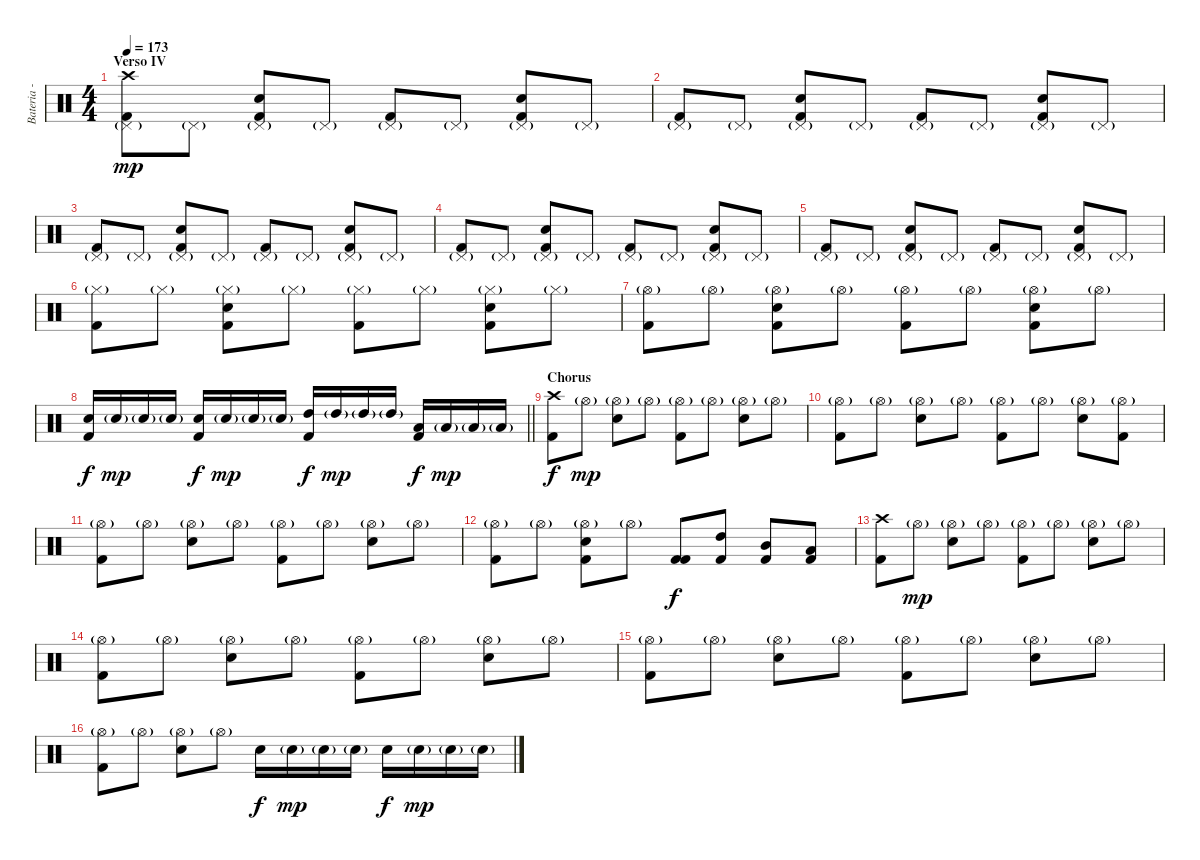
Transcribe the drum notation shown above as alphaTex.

\track ("Bateria - Larzon " "Bateria - ") {instrument percussion}
\staff {score}
\articulation defaults
\ts (4 4)
\section ("" "Verso IV")
\tempo 173
\clef neutral
\ks c
("Kick (hit) 2" "Pedal Hi-Hat (hit)"{g} "Crash high (hit)").8{dy mp} "Pedal Hi-Hat (hit)"{g}.8 ("Pedal Hi-Hat (hit)"{g} "Electric Snare (hit)" "Kick (hit) 2").8 "Pedal Hi-Hat (hit)"{g}.8 ("Kick (hit) 2" "Pedal Hi-Hat (hit)"{g}).8 "Pedal Hi-Hat (hit)"{g}.8 ("Pedal Hi-Hat (hit)"{g} "Electric Snare (hit)" "Kick (hit) 2").8 "Pedal Hi-Hat (hit)"{g}.8 |
("Kick (hit) 2" "Pedal Hi-Hat (hit)"{g}).8 "Pedal Hi-Hat (hit)"{g}.8 ("Pedal Hi-Hat (hit)"{g} "Electric Snare (hit)" "Kick (hit) 2").8 "Pedal Hi-Hat (hit)"{g}.8 ("Kick (hit) 2" "Pedal Hi-Hat (hit)"{g}).8 "Pedal Hi-Hat (hit)"{g}.8 ("Pedal Hi-Hat (hit)"{g} "Electric Snare (hit)" "Kick (hit) 2").8 "Pedal Hi-Hat (hit)"{g}.8 |
("Kick (hit) 2" "Pedal Hi-Hat (hit)"{g}).8 "Pedal Hi-Hat (hit)"{g}.8 ("Pedal Hi-Hat (hit)"{g} "Electric Snare (hit)" "Kick (hit) 2").8 "Pedal Hi-Hat (hit)"{g}.8 ("Kick (hit) 2" "Pedal Hi-Hat (hit)"{g}).8 "Pedal Hi-Hat (hit)"{g}.8 ("Pedal Hi-Hat (hit)"{g} "Electric Snare (hit)" "Kick (hit) 2").8 "Pedal Hi-Hat (hit)"{g}.8 |
("Kick (hit) 2" "Pedal Hi-Hat (hit)"{g}).8 "Pedal Hi-Hat (hit)"{g}.8 ("Pedal Hi-Hat (hit)"{g} "Electric Snare (hit)" "Kick (hit) 2").8 "Pedal Hi-Hat (hit)"{g}.8 ("Kick (hit) 2" "Pedal Hi-Hat (hit)"{g}).8 "Pedal Hi-Hat (hit)"{g}.8 ("Pedal Hi-Hat (hit)"{g} "Electric Snare (hit)" "Kick (hit) 2").8 "Pedal Hi-Hat (hit)"{g}.8 |
("Kick (hit) 2" "Pedal Hi-Hat (hit)"{g}).8 "Pedal Hi-Hat (hit)"{g}.8 ("Pedal Hi-Hat (hit)"{g} "Electric Snare (hit)" "Kick (hit) 2").8 "Pedal Hi-Hat (hit)"{g}.8 ("Kick (hit) 2" "Pedal Hi-Hat (hit)"{g}).8 "Pedal Hi-Hat (hit)"{g}.8 ("Pedal Hi-Hat (hit)"{g} "Electric Snare (hit)" "Kick (hit) 2").8 "Pedal Hi-Hat (hit)"{g}.8 |
("Kick (hit) 2" "Hi-Hat (closed)"{g}).8 "Hi-Hat (closed)"{g}.8 ("Hi-Hat (closed)"{g} "Electric Snare (hit)" "Kick (hit) 2").8 "Hi-Hat (closed)"{g}.8 ("Kick (hit) 2" "Hi-Hat (closed)"{g}).8 "Hi-Hat (closed)"{g}.8 ("Hi-Hat (closed)"{g} "Electric Snare (hit)" "Kick (hit) 2").8 "Hi-Hat (closed)"{g}.8 |
("Kick (hit) 2" "Hi-Hat (open)"{g}).8 "Hi-Hat (open)"{g}.8 ("Hi-Hat (open)"{g} "Electric Snare (hit)" "Kick (hit) 2").8 "Hi-Hat (open)"{g}.8 ("Kick (hit) 2" "Hi-Hat (open)"{g}).8 "Hi-Hat (open)"{g}.8 ("Hi-Hat (open)"{g} "Electric Snare (hit)" "Kick (hit) 2").8 "Hi-Hat (open)"{g}.8 |
\barLineRight lightlight
("Electric Snare (hit)" "Kick (hit) 2").16{dy f} "Electric Snare (hit)"{g}.16{dy mp} "Electric Snare (hit)"{g}.16 "Electric Snare (hit)"{g}.16 ("Electric Snare (hit)" "Kick (hit) 2").16{dy f} "Electric Snare (hit)"{g}.16{dy mp} "Electric Snare (hit)"{g}.16 "Electric Snare (hit)"{g}.16 ("High Tom (hit)" "Kick (hit) 2").16{dy f} "High Tom (hit)"{g}.16{dy mp} "High Tom (hit)"{g}.16 "High Tom (hit)"{g}.16 ("Low Tom (hit)" "Kick (hit) 2").16{dy f} "Low Tom (hit)"{g}.16{dy mp} "Low Tom (hit)"{g}.16 "Low Tom (hit)"{g}.16 |
\section ("" "Chorus")
("Kick (hit) 2" "Crash high (hit)").8{dy f} "Hi-Hat (open)"{g}.8{dy mp} ("Hi-Hat (open)"{g} "Electric Snare (hit)").8 "Hi-Hat (open)"{g}.8 ("Kick (hit) 2" "Hi-Hat (open)"{g}).8 "Hi-Hat (open)"{g}.8 ("Hi-Hat (open)"{g} "Electric Snare (hit)").8 "Hi-Hat (open)"{g}.8 |
("Kick (hit) 2" "Hi-Hat (open)"{g}).8 "Hi-Hat (open)"{g}.8 ("Hi-Hat (open)"{g} "Electric Snare (hit)").8 "Hi-Hat (open)"{g}.8 ("Kick (hit) 2" "Hi-Hat (open)"{g}).8 "Hi-Hat (open)"{g}.8 ("Hi-Hat (open)"{g} "Electric Snare (hit)").8 ("Kick (hit) 2" "Hi-Hat (open)"{g}).8 |
("Kick (hit) 2" "Hi-Hat (open)"{g}).8 "Hi-Hat (open)"{g}.8 ("Hi-Hat (open)"{g} "Electric Snare (hit)").8 "Hi-Hat (open)"{g}.8 ("Kick (hit) 2" "Hi-Hat (open)"{g}).8 "Hi-Hat (open)"{g}.8 ("Hi-Hat (open)"{g} "Electric Snare (hit)").8 "Hi-Hat (open)"{g}.8 |
("Kick (hit) 2" "Hi-Hat (open)"{g}).8 "Hi-Hat (open)"{g}.8 ("Hi-Hat (open)"{g} "Electric Snare (hit)" "Kick (hit) 2").8 "Hi-Hat (open)"{g}.8 ("Kick (hit) 2" "Kick (hit) 2").8{dy f} ("High Tom (hit)" "Kick (hit) 2").8 ("Mid Tom (hit)" "Kick (hit) 2").8 ("Low Tom (hit)" "Kick (hit) 2").8 |
("Kick (hit) 2" "Crash high (hit)").8 "Hi-Hat (open)"{g}.8{dy mp} ("Hi-Hat (open)"{g} "Electric Snare (hit)").8 "Hi-Hat (open)"{g}.8 ("Kick (hit) 2" "Hi-Hat (open)"{g}).8 "Hi-Hat (open)"{g}.8 ("Hi-Hat (open)"{g} "Electric Snare (hit)").8 "Hi-Hat (open)"{g}.8 |
("Kick (hit) 2" "Hi-Hat (open)"{g}).8 "Hi-Hat (open)"{g}.8 ("Hi-Hat (open)"{g} "Electric Snare (hit)").8 "Hi-Hat (open)"{g}.8 ("Kick (hit) 2" "Hi-Hat (open)"{g}).8 "Hi-Hat (open)"{g}.8 ("Hi-Hat (open)"{g} "Electric Snare (hit)").8 "Hi-Hat (open)"{g}.8 |
("Kick (hit) 2" "Hi-Hat (open)"{g}).8 "Hi-Hat (open)"{g}.8 ("Hi-Hat (open)"{g} "Electric Snare (hit)").8 "Hi-Hat (open)"{g}.8 ("Kick (hit) 2" "Hi-Hat (open)"{g}).8 "Hi-Hat (open)"{g}.8 ("Hi-Hat (open)"{g} "Electric Snare (hit)").8 "Hi-Hat (open)"{g}.8 |
("Kick (hit) 2" "Hi-Hat (open)"{g}).8 "Hi-Hat (open)"{g}.8 ("Hi-Hat (open)"{g} "Electric Snare (hit)").8 "Hi-Hat (open)"{g}.8 "Electric Snare (hit)".16{dy f} "Electric Snare (hit)"{g}.16{dy mp} "Electric Snare (hit)"{g}.16 "Electric Snare (hit)"{g}.16 "Electric Snare (hit)".16{dy f} "Electric Snare (hit)"{g}.16{dy mp} "Electric Snare (hit)"{g}.16 "Electric Snare (hit)"{g}.16
